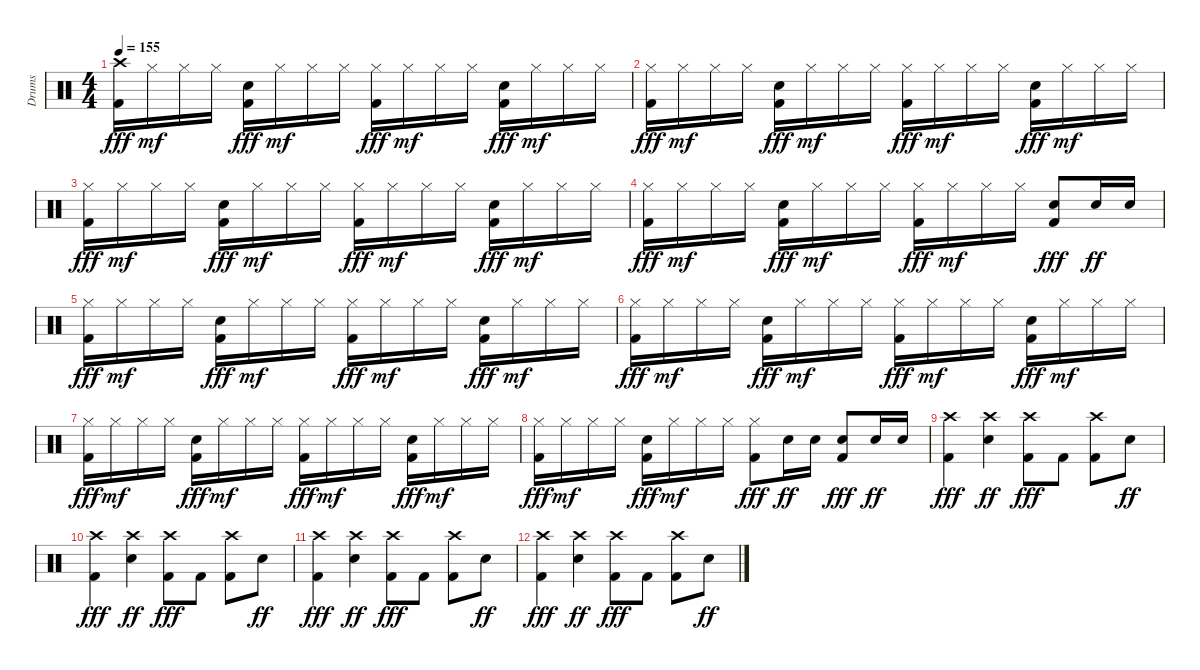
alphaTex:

\track ("Drums" "Drums") {instrument percussion}
\staff {score}
\articulation defaults
\ts (4 4)
\tempo 155
\clef neutral
\ks c
("Crash high (hit)" "Kick (hit) 2").16{dy fff} "Hi-Hat (closed)".16{dy mf} "Hi-Hat (closed)".16 "Hi-Hat (closed)".16 ("Snare (hit) 2" "Kick (hit) 2").16{dy fff} "Hi-Hat (closed)".16{dy mf} "Hi-Hat (closed)".16 "Hi-Hat (closed)".16 ("Hi-Hat (closed)" "Kick (hit) 2").16{dy fff} "Hi-Hat (closed)".16{dy mf} "Hi-Hat (closed)".16 "Hi-Hat (closed)".16 ("Snare (hit) 2" "Kick (hit) 2").16{dy fff} "Hi-Hat (closed)".16{dy mf} "Hi-Hat (closed)".16 "Hi-Hat (closed)".16 |
("Hi-Hat (closed)" "Kick (hit) 2").16{dy fff} "Hi-Hat (closed)".16{dy mf} "Hi-Hat (closed)".16 "Hi-Hat (closed)".16 ("Snare (hit) 2" "Kick (hit) 2").16{dy fff} "Hi-Hat (closed)".16{dy mf} "Hi-Hat (closed)".16 "Hi-Hat (closed)".16 ("Hi-Hat (closed)" "Kick (hit) 2").16{dy fff} "Hi-Hat (closed)".16{dy mf} "Hi-Hat (closed)".16 "Hi-Hat (closed)".16 ("Snare (hit) 2" "Kick (hit) 2").16{dy fff} "Hi-Hat (closed)".16{dy mf} "Hi-Hat (closed)".16 "Hi-Hat (closed)".16 |
("Hi-Hat (closed)" "Kick (hit) 2").16{dy fff} "Hi-Hat (closed)".16{dy mf} "Hi-Hat (closed)".16 "Hi-Hat (closed)".16 ("Snare (hit) 2" "Kick (hit) 2").16{dy fff} "Hi-Hat (closed)".16{dy mf} "Hi-Hat (closed)".16 "Hi-Hat (closed)".16 ("Hi-Hat (closed)" "Kick (hit) 2").16{dy fff} "Hi-Hat (closed)".16{dy mf} "Hi-Hat (closed)".16 "Hi-Hat (closed)".16 ("Snare (hit) 2" "Kick (hit) 2").16{dy fff} "Hi-Hat (closed)".16{dy mf} "Hi-Hat (closed)".16 "Hi-Hat (closed)".16 |
("Hi-Hat (closed)" "Kick (hit) 2").16{dy fff} "Hi-Hat (closed)".16{dy mf} "Hi-Hat (closed)".16 "Hi-Hat (closed)".16 ("Snare (hit) 2" "Kick (hit) 2").16{dy fff} "Hi-Hat (closed)".16{dy mf} "Hi-Hat (closed)".16 "Hi-Hat (closed)".16 ("Hi-Hat (closed)" "Kick (hit) 2").16{dy fff} "Hi-Hat (closed)".16{dy mf} "Hi-Hat (closed)".16 "Hi-Hat (closed)".16 ("Snare (hit) 2" "Kick (hit) 2").8{dy fff} "Snare (hit) 2".16{dy ff} "Snare (hit) 2".16 |
("Hi-Hat (closed)" "Kick (hit) 2").16{dy fff} "Hi-Hat (closed)".16{dy mf} "Hi-Hat (closed)".16 "Hi-Hat (closed)".16 ("Snare (hit) 2" "Kick (hit) 2").16{dy fff} "Hi-Hat (closed)".16{dy mf} "Hi-Hat (closed)".16 "Hi-Hat (closed)".16 ("Hi-Hat (closed)" "Kick (hit) 2").16{dy fff} "Hi-Hat (closed)".16{dy mf} "Hi-Hat (closed)".16 "Hi-Hat (closed)".16 ("Snare (hit) 2" "Kick (hit) 2").16{dy fff} "Hi-Hat (closed)".16{dy mf} "Hi-Hat (closed)".16 "Hi-Hat (closed)".16 |
("Hi-Hat (closed)" "Kick (hit) 2").16{dy fff} "Hi-Hat (closed)".16{dy mf} "Hi-Hat (closed)".16 "Hi-Hat (closed)".16 ("Snare (hit) 2" "Kick (hit) 2").16{dy fff} "Hi-Hat (closed)".16{dy mf} "Hi-Hat (closed)".16 "Hi-Hat (closed)".16 ("Hi-Hat (closed)" "Kick (hit) 2").16{dy fff} "Hi-Hat (closed)".16{dy mf} "Hi-Hat (closed)".16 "Hi-Hat (closed)".16 ("Snare (hit) 2" "Kick (hit) 2").16{dy fff} "Hi-Hat (closed)".16{dy mf} "Hi-Hat (closed)".16 "Hi-Hat (closed)".16 |
("Hi-Hat (closed)" "Kick (hit) 2").16{dy fff} "Hi-Hat (closed)".16{dy mf} "Hi-Hat (closed)".16 "Hi-Hat (closed)".16 ("Snare (hit) 2" "Kick (hit) 2").16{dy fff} "Hi-Hat (closed)".16{dy mf} "Hi-Hat (closed)".16 "Hi-Hat (closed)".16 ("Hi-Hat (closed)" "Kick (hit) 2").16{dy fff} "Hi-Hat (closed)".16{dy mf} "Hi-Hat (closed)".16 "Hi-Hat (closed)".16 ("Snare (hit) 2" "Kick (hit) 2").16{dy fff} "Hi-Hat (closed)".16{dy mf} "Hi-Hat (closed)".16 "Hi-Hat (closed)".16 |
("Hi-Hat (closed)" "Kick (hit) 2").16{dy fff} "Hi-Hat (closed)".16{dy mf} "Hi-Hat (closed)".16 "Hi-Hat (closed)".16 ("Snare (hit) 2" "Kick (hit) 2").16{dy fff} "Hi-Hat (closed)".16{dy mf} "Hi-Hat (closed)".16 "Hi-Hat (closed)".16 ("Hi-Hat (closed)" "Kick (hit) 2").8{dy fff} "Snare (hit) 2".16{dy ff} "Snare (hit) 2".16 ("Snare (hit) 2" "Kick (hit) 2").8{dy fff} "Snare (hit) 2".16{dy ff} "Snare (hit) 2".16 |
("Crash high (hit)" "Kick (hit) 2").4{dy fff} ("Crash high (hit)" "Snare (hit) 2").4{dy ff} ("Crash high (hit)" "Kick (hit) 2").8{dy fff} "Kick (hit) 2".8 ("Crash high (hit)" "Kick (hit) 2").8 "Snare (hit) 2".8{dy ff} |
("Crash high (hit)" "Kick (hit) 2").4{dy fff} ("Crash high (hit)" "Snare (hit) 2").4{dy ff} ("Crash high (hit)" "Kick (hit) 2").8{dy fff} "Kick (hit) 2".8 ("Crash high (hit)" "Kick (hit) 2").8 "Snare (hit) 2".8{dy ff} |
("Crash high (hit)" "Kick (hit) 2").4{dy fff} ("Crash high (hit)" "Snare (hit) 2").4{dy ff} ("Crash high (hit)" "Kick (hit) 2").8{dy fff} "Kick (hit) 2".8 ("Crash high (hit)" "Kick (hit) 2").8 "Snare (hit) 2".8{dy ff} |
("Crash high (hit)" "Kick (hit) 2").4{dy fff} ("Crash high (hit)" "Snare (hit) 2").4{dy ff} ("Crash high (hit)" "Kick (hit) 2").8{dy fff} "Kick (hit) 2".8 ("Crash high (hit)" "Kick (hit) 2").8 "Snare (hit) 2".8{dy ff}
